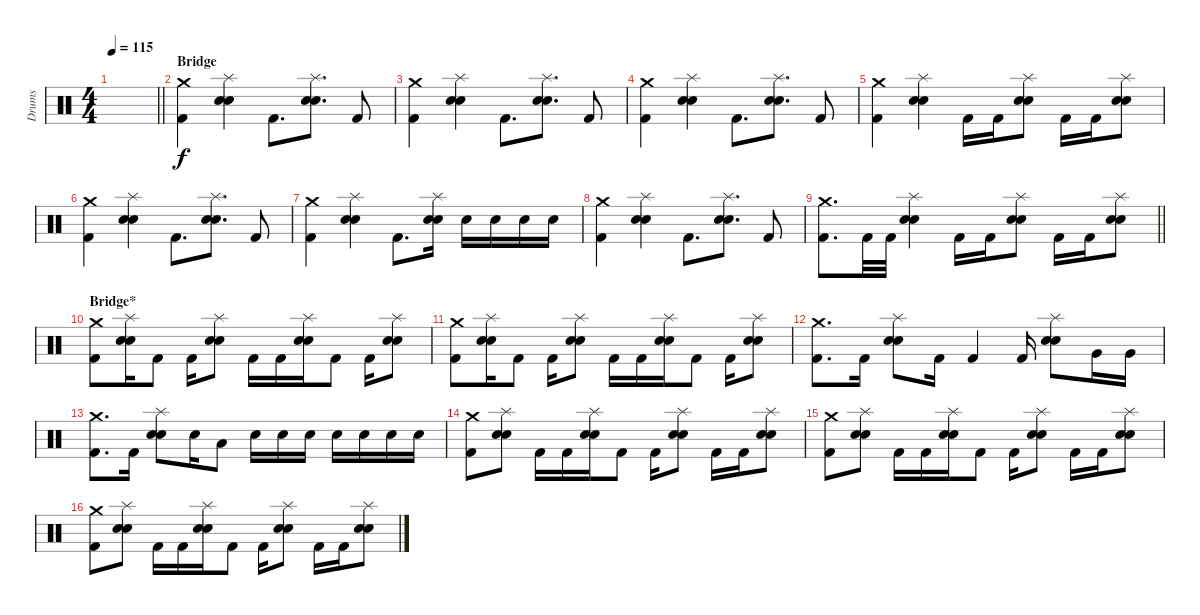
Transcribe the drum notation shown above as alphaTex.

\track ("Drums" "Drums") {instrument percussion}
\staff {score}
\articulation defaults
\ts (4 4)
\tempo 115
\clef neutral
\barLineRight lightlight
\ks c
|
\section ("" "Bridge")
("Crash medium (hit)" "Kick (hit) 2").4 ("Splash (hit)" "Electric Snare (hit)" "Snare (hit) 2").4 "Kick (hit) 2".8{d} ("Splash (hit)" "Electric Snare (hit)" "Snare (hit) 2").8{d} "Kick (hit) 2".8 |
("Crash medium (hit)" "Kick (hit) 2").4 ("Splash (hit)" "Electric Snare (hit)" "Snare (hit) 2").4 "Kick (hit) 2".8{d} ("Splash (hit)" "Electric Snare (hit)" "Snare (hit) 2").8{d} "Kick (hit) 2".8 |
("Crash medium (hit)" "Kick (hit) 2").4 ("Splash (hit)" "Electric Snare (hit)" "Snare (hit) 2").4 "Kick (hit) 2".8{d} ("Splash (hit)" "Electric Snare (hit)" "Snare (hit) 2").8{d} "Kick (hit) 2".8 |
("Crash medium (hit)" "Kick (hit) 2").4 ("Splash (hit)" "Electric Snare (hit)" "Snare (hit) 2").4 "Kick (hit) 2".16 "Kick (hit) 2".16 ("Splash (hit)" "Electric Snare (hit)" "Snare (hit) 2").8 "Kick (hit) 2".16 "Kick (hit) 2".16 ("Splash (hit)" "Electric Snare (hit)" "Snare (hit) 2").8 |
("Crash medium (hit)" "Kick (hit) 2").4 ("Splash (hit)" "Electric Snare (hit)" "Snare (hit) 2").4 "Kick (hit) 2".8{d} ("Splash (hit)" "Electric Snare (hit)" "Snare (hit) 2").8{d} "Kick (hit) 2".8 |
("Crash medium (hit)" "Kick (hit) 2").4 ("Splash (hit)" "Electric Snare (hit)" "Snare (hit) 2").4 "Kick (hit) 2".8{d} ("Splash (hit)" "Electric Snare (hit)" "Snare (hit) 2").16 "Electric Snare (hit)".16 "Electric Snare (hit)".16 "Electric Snare (hit)".16 "Electric Snare (hit)".16 |
("Crash medium (hit)" "Kick (hit) 2").4 ("Splash (hit)" "Electric Snare (hit)" "Snare (hit) 2").4 "Kick (hit) 2".8{d} ("Splash (hit)" "Electric Snare (hit)" "Snare (hit) 2").8{d} "Kick (hit) 2".8 |
\barLineRight lightlight
("Crash medium (hit)" "Kick (hit) 2").8{d} "Kick (hit) 2".32 "Kick (hit) 2".32 ("Splash (hit)" "Electric Snare (hit)" "Snare (hit) 2").4 "Kick (hit) 2".16 "Kick (hit) 2".16 ("Splash (hit)" "Electric Snare (hit)" "Snare (hit) 2").8 "Kick (hit) 2".16 "Kick (hit) 2".16 ("Splash (hit)" "Electric Snare (hit)" "Snare (hit) 2").8 |
\section ("" "Bridge*")
("Crash medium (hit)" "Kick (hit) 2").8 ("Splash (hit)" "Electric Snare (hit)" "Snare (hit) 2").16 "Kick (hit) 2".8 "Kick (hit) 2".16 ("Splash (hit)" "Electric Snare (hit)" "Snare (hit) 2").8 "Kick (hit) 2".16 "Kick (hit) 2".16 ("Splash (hit)" "Electric Snare (hit)" "Snare (hit) 2").16 "Kick (hit) 2".8 "Kick (hit) 2".16 ("Splash (hit)" "Electric Snare (hit)" "Snare (hit) 2").8 |
("Crash medium (hit)" "Kick (hit) 2").8 ("Splash (hit)" "Electric Snare (hit)" "Snare (hit) 2").16 "Kick (hit) 2".8 "Kick (hit) 2".16 ("Splash (hit)" "Electric Snare (hit)" "Snare (hit) 2").8 "Kick (hit) 2".16 "Kick (hit) 2".16 ("Splash (hit)" "Electric Snare (hit)" "Snare (hit) 2").16 "Kick (hit) 2".8 "Kick (hit) 2".16 ("Splash (hit)" "Electric Snare (hit)" "Snare (hit) 2").8 |
("Crash medium (hit)" "Kick (hit) 2").8{d} "Kick (hit) 2".16 ("Splash (hit)" "Electric Snare (hit)" "Snare (hit) 2").8 "Kick (hit) 2".16 "Kick (hit) 2".4 "Kick (hit) 2".16 ("Splash (hit)" "Electric Snare (hit)" "Snare (hit) 2").8 "Very Low Tom (hit)".16 "Very Low Tom (hit)".16 |
("Crash medium (hit)" "Kick (hit) 2").8{d} "Kick (hit) 2".16 ("Splash (hit)" "Electric Snare (hit)" "Snare (hit) 2").8 "Electric Snare (hit)".16 "Low Tom (hit)".8 "Electric Snare (hit)".16 "Electric Snare (hit)".16 "Electric Snare (hit)".16 "Electric Snare (hit)".16 "Electric Snare (hit)".16 "Electric Snare (hit)".16 "Electric Snare (hit)".16 |
("Crash medium (hit)" "Kick (hit) 2").8 ("Splash (hit)" "Electric Snare (hit)" "Snare (hit) 2").8 "Kick (hit) 2".16 "Kick (hit) 2".16 ("Splash (hit)" "Electric Snare (hit)" "Snare (hit) 2").16 "Kick (hit) 2".8 "Kick (hit) 2".16 ("Splash (hit)" "Electric Snare (hit)" "Snare (hit) 2").8 "Kick (hit) 2".16 "Kick (hit) 2".16 ("Splash (hit)" "Electric Snare (hit)" "Snare (hit) 2").8 |
("Crash medium (hit)" "Kick (hit) 2").8 ("Splash (hit)" "Electric Snare (hit)" "Snare (hit) 2").8 "Kick (hit) 2".16 "Kick (hit) 2".16 ("Splash (hit)" "Electric Snare (hit)" "Snare (hit) 2").16 "Kick (hit) 2".8 "Kick (hit) 2".16 ("Splash (hit)" "Electric Snare (hit)" "Snare (hit) 2").8 "Kick (hit) 2".16 "Kick (hit) 2".16 ("Splash (hit)" "Electric Snare (hit)" "Snare (hit) 2").8 |
("Crash medium (hit)" "Kick (hit) 2").8 ("Splash (hit)" "Electric Snare (hit)" "Snare (hit) 2").8 "Kick (hit) 2".16 "Kick (hit) 2".16 ("Splash (hit)" "Electric Snare (hit)" "Snare (hit) 2").16 "Kick (hit) 2".8 "Kick (hit) 2".16 ("Splash (hit)" "Electric Snare (hit)" "Snare (hit) 2").8 "Kick (hit) 2".16 "Kick (hit) 2".16 ("Splash (hit)" "Electric Snare (hit)" "Snare (hit) 2").8
